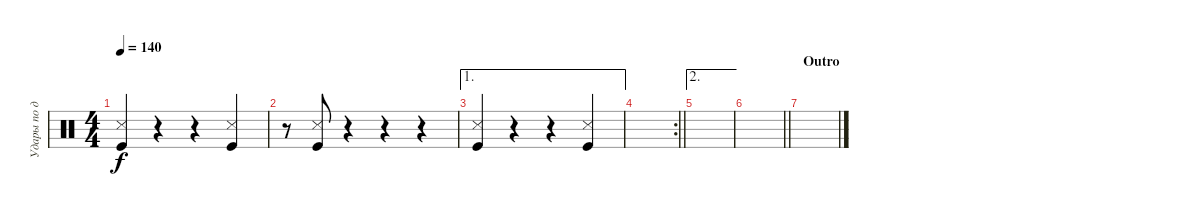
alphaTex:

\track ("Удары по деке" "Удары по д") {instrument percussion}
\staff {score}
\articulation defaults
\ts (4 4)
\tempo 140
\clef neutral
\ks c
("Snare (side stick) 3" "Kick (hit)").4{dy f} r.4 r.4 ("Snare (side stick) 3" "Kick (hit)").4 |
r.8 ("Snare (side stick) 3" "Kick (hit)").8 r.4 r.4 r.4 |
\ae 1
("Snare (side stick) 3" "Kick (hit)").4 r.4 r.4 ("Snare (side stick) 3" "Kick (hit)").4 |
\rc 2
\barLineRight lightlight
|
\ae 2
|
\barLineRight lightlight
|
\section ("" "Outro")
